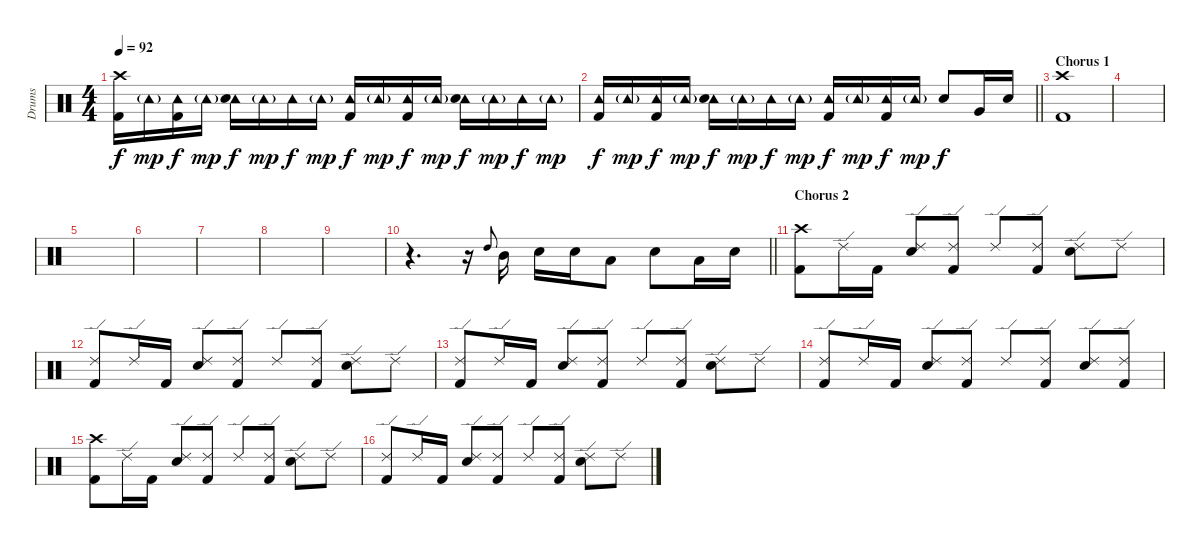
\track ("Drums" "Drums") {instrument percussion}
\staff {score}
\articulation defaults
\ts (4 4)
\tempo 92
\clef neutral
\ks c
("Crash high (hit)" "Kick (hit) 2").16{dy f} "Tambourine (hit)"{g}.16{dy mp} ("Tambourine (hit)" "Kick (hit) 2").16{dy f} "Tambourine (hit)"{g}.16{dy mp} ("Tambourine (hit)" "Electric Snare (hit)").16{dy f} "Tambourine (hit)"{g}.16{dy mp} "Tambourine (hit)".16{dy f} "Tambourine (hit)"{g}.16{dy mp} ("Tambourine (hit)" "Kick (hit) 2").16{dy f} "Tambourine (hit)"{g}.16{dy mp} ("Tambourine (hit)" "Kick (hit) 2").16{dy f} "Tambourine (hit)"{g}.16{dy mp} ("Tambourine (hit)" "Electric Snare (hit)").16{dy f} "Tambourine (hit)"{g}.16{dy mp} "Tambourine (hit)".16{dy f} "Tambourine (hit)"{g}.16{dy mp} |
\barLineRight lightlight
("Tambourine (hit)" "Kick (hit) 2").16{dy f} "Tambourine (hit)"{g}.16{dy mp} ("Tambourine (hit)" "Kick (hit) 2").16{dy f} "Tambourine (hit)"{g}.16{dy mp} ("Tambourine (hit)" "Electric Snare (hit)").16{dy f} "Tambourine (hit)"{g}.16{dy mp} "Tambourine (hit)".16{dy f} "Tambourine (hit)"{g}.16{dy mp} ("Tambourine (hit)" "Kick (hit) 2").16{dy f} "Tambourine (hit)"{g}.16{dy mp} ("Tambourine (hit)" "Kick (hit) 2").16{dy f} "Tambourine (hit)"{g}.16{dy mp} "Electric Snare (hit)".8{dy f} "Very Low Tom (hit)".16 "Electric Snare (hit)".16 |
\section ("" "Chorus 1")
("Crash high (hit)" "Kick (hit) 2").1 |
|
|
|
|
|
|
\barLineRight lightlight
r.4{d} r.16 "High Tom (hit)".8{gr onbeat} "Mid Tom (hit)".16 "Electric Snare (hit)".16 "Electric Snare (hit)".16 "Low Tom (hit)".8 "Electric Snare (hit)".8 "Low Tom (hit)".16 "Electric Snare (hit)".16 |
\section ("" "Chorus 2")
("Crash high (hit)" "Kick (hit) 2").8 "Ride (edge) 2".16 "Kick (hit) 2".16 ("Ride (edge) 2" "Electric Snare (hit)").8 ("Ride (edge) 2" "Kick (hit) 2").8 "Ride (edge) 2".8 ("Ride (edge) 2" "Kick (hit) 2").8 ("Ride (edge) 2" "Electric Snare (hit)").8 "Ride (edge) 2".8 |
("Ride (edge) 2" "Kick (hit) 2").8 "Ride (edge) 2".16 "Kick (hit) 2".16 ("Ride (edge) 2" "Electric Snare (hit)").8 ("Ride (edge) 2" "Kick (hit) 2").8 "Ride (edge) 2".8 ("Ride (edge) 2" "Kick (hit) 2").8 ("Ride (edge) 2" "Electric Snare (hit)").8 "Ride (edge) 2".8 |
("Ride (edge) 2" "Kick (hit) 2").8 "Ride (edge) 2".16 "Kick (hit) 2".16 ("Ride (edge) 2" "Electric Snare (hit)").8 ("Ride (edge) 2" "Kick (hit) 2").8 "Ride (edge) 2".8 ("Ride (edge) 2" "Kick (hit) 2").8 ("Ride (edge) 2" "Electric Snare (hit)").8 "Ride (edge) 2".8 |
("Ride (edge) 2" "Kick (hit) 2").8 "Ride (edge) 2".16 "Kick (hit) 2".16 ("Ride (edge) 2" "Electric Snare (hit)").8 ("Ride (edge) 2" "Kick (hit) 2").8 "Ride (edge) 2".8 ("Ride (edge) 2" "Kick (hit) 2").8 ("Ride (edge) 2" "Electric Snare (hit)").8 ("Ride (edge) 2" "Kick (hit) 2").8 |
("Crash high (hit)" "Kick (hit) 2").8 "Ride (edge) 2".16 "Kick (hit) 2".16 ("Ride (edge) 2" "Electric Snare (hit)").8 ("Ride (edge) 2" "Kick (hit) 2").8 "Ride (edge) 2".8 ("Ride (edge) 2" "Kick (hit) 2").8 ("Ride (edge) 2" "Electric Snare (hit)").8 "Ride (edge) 2".8 |
("Ride (edge) 2" "Kick (hit) 2").8 "Ride (edge) 2".16 "Kick (hit) 2".16 ("Ride (edge) 2" "Electric Snare (hit)").8 ("Ride (edge) 2" "Kick (hit) 2").8 "Ride (edge) 2".8 ("Ride (edge) 2" "Kick (hit) 2").8 ("Ride (edge) 2" "Electric Snare (hit)").8 "Ride (edge) 2".8
